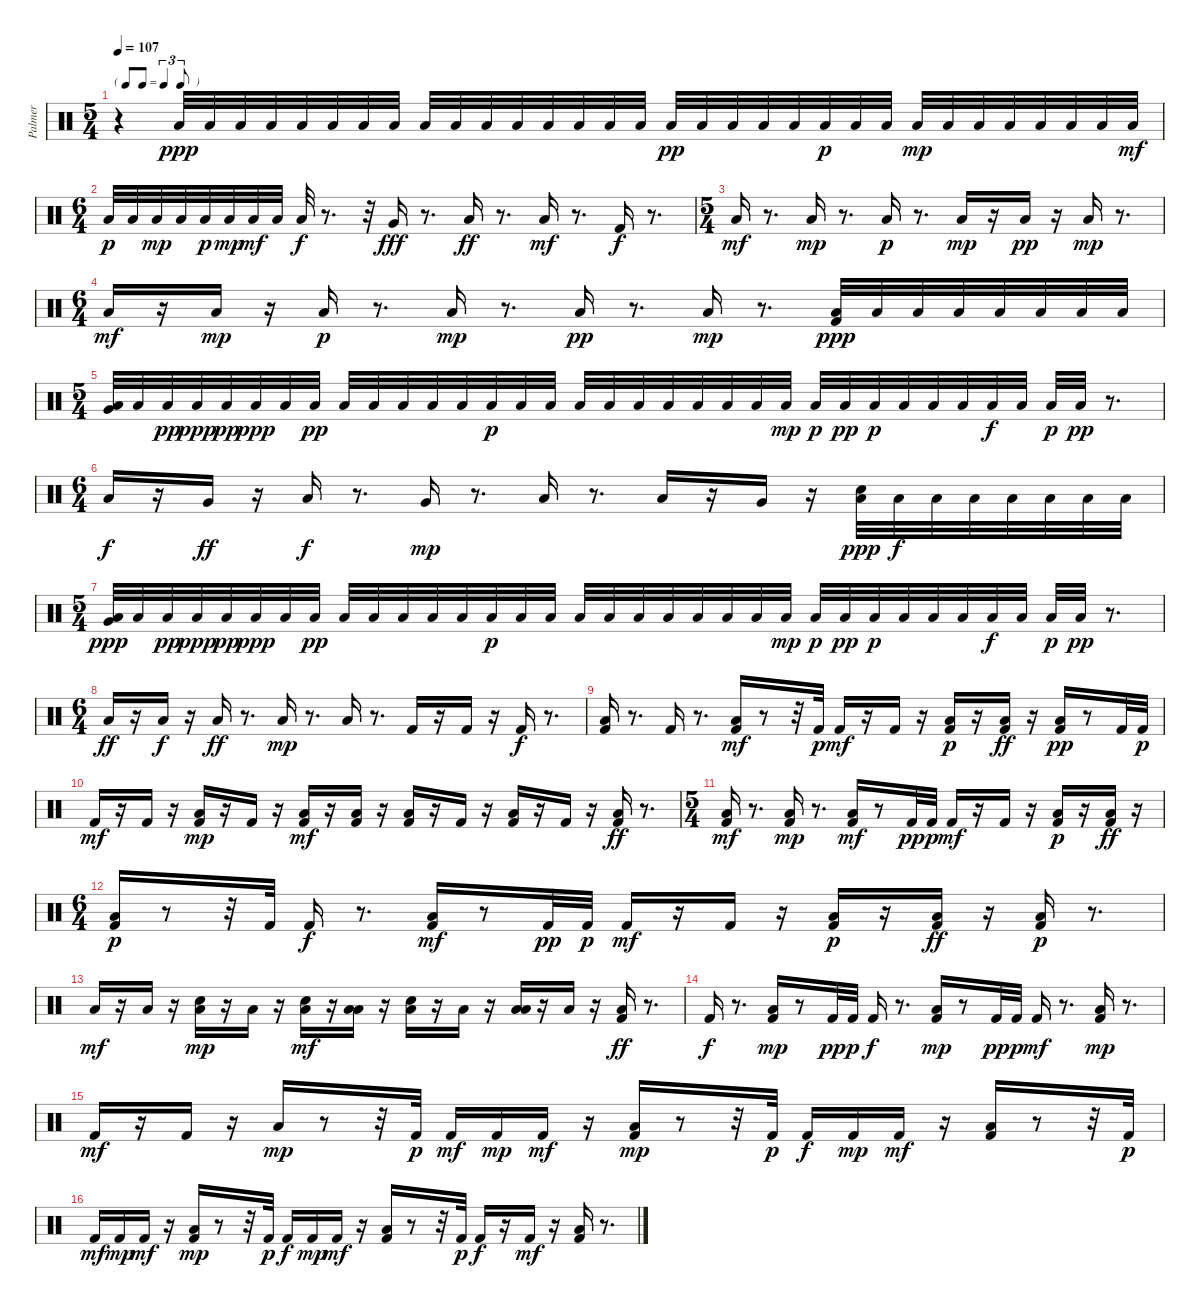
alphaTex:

\track ("Palmer" "Palmer") {instrument percussion}
\staff {score}
\articulation defaults
\ts (5 4)
\tf triplet8th
\tempo 107
\clef neutral
\ks c
r.4{dy ppp} "Low Floor Tom (hit)".32 "Low Floor Tom (hit)".32 "Low Floor Tom (hit)".32 "Low Floor Tom (hit)".32 "Low Floor Tom (hit)".32 "Low Floor Tom (hit)".32 "Low Floor Tom (hit)".32 "Low Floor Tom (hit)".32 "Low Floor Tom (hit)".32 "Low Floor Tom (hit)".32 "Low Floor Tom (hit)".32 "Low Floor Tom (hit)".32 "Low Floor Tom (hit)".32 "Low Floor Tom (hit)".32 "Low Floor Tom (hit)".32 "Low Floor Tom (hit)".32 "Low Floor Tom (hit)".32{dy pp} "Low Floor Tom (hit)".32 "Low Floor Tom (hit)".32 "Low Floor Tom (hit)".32 "Low Floor Tom (hit)".32 "Low Floor Tom (hit)".32{dy p} "Low Floor Tom (hit)".32 "Low Floor Tom (hit)".32 "Low Floor Tom (hit)".32{dy mp} "Low Floor Tom (hit)".32 "Low Floor Tom (hit)".32 "Low Floor Tom (hit)".32 "Low Floor Tom (hit)".32 "Low Floor Tom (hit)".32 "Low Floor Tom (hit)".32 "Low Floor Tom (hit)".32{dy mf} |
\ts (6 4)
"Low Floor Tom (hit)".32{dy p} "Low Floor Tom (hit)".32 "Low Floor Tom (hit)".32{dy mp} "Low Floor Tom (hit)".32 "Low Floor Tom (hit)".32{dy p} "Low Floor Tom (hit)".32{dy mp} "Low Floor Tom (hit)".32{dy mf} "Low Floor Tom (hit)".32 "Low Floor Tom (hit)".32{dy f} r.8{d} r.32 "Very Low Tom (hit)".16{dy fff} r.8{d} "Low Tom (hit)".16{dy ff} r.8{d} "Low Floor Tom (hit)".16{dy mf} r.8{d} "Kick (hit) 2".16{dy f} r.8{d} |
\ts (5 4)
"Low Tom (hit)".16{dy mf} r.8{d} "Low Tom (hit)".16{dy mp} r.8{d} "Low Tom (hit)".16{dy p} r.8{d} "Low Tom (hit)".16{dy mp} r.16 "Low Tom (hit)".16{dy pp} r.16 "Low Tom (hit)".16{dy mp} r.8{d} |
\ts (6 4)
"Low Tom (hit)".16{dy mf} r.16 "Low Tom (hit)".16{dy mp} r.16 "Low Tom (hit)".16{dy p} r.8{d} "Low Tom (hit)".16{dy mp} r.8{d} "Low Tom (hit)".16{dy pp} r.8{d} "Low Tom (hit)".16{dy mp} r.8{d} ("Low Tom (hit)" "Kick (hit) 2").32{dy ppp} "Low Floor Tom (hit)".32 "Low Floor Tom (hit)".32 "Low Floor Tom (hit)".32 "Low Floor Tom (hit)".32 "Low Floor Tom (hit)".32 "Low Floor Tom (hit)".32 "Low Floor Tom (hit)".32 |
\ts (5 4)
("Low Floor Tom (hit)" "Very Low Tom (hit)").32 "Low Floor Tom (hit)".32 "Low Floor Tom (hit)".32{dy pp} "Low Floor Tom (hit)".32{dy ppp} "Low Floor Tom (hit)".32{dy pp} "Low Floor Tom (hit)".32{dy ppp} "Low Floor Tom (hit)".32 "Low Floor Tom (hit)".32{dy pp} "Low Floor Tom (hit)".32 "Low Floor Tom (hit)".32 "Low Floor Tom (hit)".32 "Low Floor Tom (hit)".32 "Low Floor Tom (hit)".32 "Low Floor Tom (hit)".32{dy p} "Low Floor Tom (hit)".32 "Low Floor Tom (hit)".32 "Low Floor Tom (hit)".32 "Low Floor Tom (hit)".32 "Low Floor Tom (hit)".32 "Low Floor Tom (hit)".32 "Low Floor Tom (hit)".32 "Low Floor Tom (hit)".32 "Low Floor Tom (hit)".32 "Low Floor Tom (hit)".32{dy mp} "Low Floor Tom (hit)".32{dy p} "Low Floor Tom (hit)".32{dy pp} "Low Floor Tom (hit)".32{dy p} "Low Floor Tom (hit)".32 "Low Floor Tom (hit)".32 "Low Floor Tom (hit)".32 "Low Floor Tom (hit)".32{dy f} "Low Floor Tom (hit)".32 "Low Floor Tom (hit)".32{dy p} "Low Floor Tom (hit)".32{dy pp} r.8{d} |
\ts (6 4)
"Low Floor Tom (hit)".16{dy f} r.16 "Very Low Tom (hit)".16{dy ff} r.16 "Low Floor Tom (hit)".16{dy f} r.8{d} "Very Low Tom (hit)".16{dy mp} r.8{d} "Low Tom (hit)".16 r.8{d} "Low Tom (hit)".16 r.16 "Very Low Tom (hit)".16 r.16 ("Low Tom (hit)" "Electric Snare (hit)").32{dy ppp} "Low Floor Tom (hit)".32{dy f} "Low Floor Tom (hit)".32 "Low Floor Tom (hit)".32 "Low Floor Tom (hit)".32 "Low Floor Tom (hit)".32 "Low Floor Tom (hit)".32 "Low Floor Tom (hit)".32 |
\ts (5 4)
("Low Floor Tom (hit)" "Very Low Tom (hit)").32{dy ppp} "Low Floor Tom (hit)".32 "Low Floor Tom (hit)".32{dy pp} "Low Floor Tom (hit)".32{dy ppp} "Low Floor Tom (hit)".32{dy pp} "Low Floor Tom (hit)".32{dy ppp} "Low Floor Tom (hit)".32 "Low Floor Tom (hit)".32{dy pp} "Low Floor Tom (hit)".32 "Low Floor Tom (hit)".32 "Low Floor Tom (hit)".32 "Low Floor Tom (hit)".32 "Low Floor Tom (hit)".32 "Low Floor Tom (hit)".32{dy p} "Low Floor Tom (hit)".32 "Low Floor Tom (hit)".32 "Low Floor Tom (hit)".32 "Low Floor Tom (hit)".32 "Low Floor Tom (hit)".32 "Low Floor Tom (hit)".32 "Low Floor Tom (hit)".32 "Low Floor Tom (hit)".32 "Low Floor Tom (hit)".32 "Low Floor Tom (hit)".32{dy mp} "Low Floor Tom (hit)".32{dy p} "Low Floor Tom (hit)".32{dy pp} "Low Floor Tom (hit)".32{dy p} "Low Floor Tom (hit)".32 "Low Floor Tom (hit)".32 "Low Floor Tom (hit)".32 "Low Floor Tom (hit)".32{dy f} "Low Floor Tom (hit)".32 "Low Floor Tom (hit)".32{dy p} "Low Floor Tom (hit)".32{dy pp} r.8{d} |
\ts (6 4)
"Low Floor Tom (hit)".16{dy ff} r.16 "Low Floor Tom (hit)".16{dy f} r.16 "Low Floor Tom (hit)".16{dy ff} r.8{d} "Low Tom (hit)".16{dy mp} r.8{d} "Low Tom (hit)".16 r.8{d} "Kick (hit) 2".16 r.16 "Kick (hit) 2".16 r.16 "Kick (hit) 2".16{dy f} r.8{d} |
("Low Tom (hit)" "Kick (hit) 2").16 r.8{d} "Kick (hit) 2".16 r.8{d} ("Low Tom (hit)" "Kick (hit) 2").16{dy mf} r.8 r.32 "Kick (hit) 2".32{dy p} "Kick (hit) 2".16{dy mf} r.16 "Kick (hit) 2".16 r.16 ("Low Tom (hit)" "Kick (hit) 2").16{dy p} r.16 ("Low Floor Tom (hit)" "Kick (hit) 2").16{dy ff} r.16 ("Low Tom (hit)" "Kick (hit) 2").16{dy pp} r.8 "Kick (hit) 2".32 "Kick (hit) 2".32{dy p} |
"Kick (hit) 2".16{dy mf} r.16 "Kick (hit) 2".16 r.16 ("Low Tom (hit)" "Kick (hit) 2").16{dy mp} r.16 "Kick (hit) 2".16 r.16 ("Low Tom (hit)" "Kick (hit) 2").16{dy mf} r.16 ("Low Floor Tom (hit)" "Kick (hit) 2").16 r.16 ("Low Tom (hit)" "Kick (hit) 2").16 r.16 "Kick (hit) 2".16 r.16 ("Low Floor Tom (hit)" "Kick (hit) 2").16 r.16 "Kick (hit) 2".16 r.16 ("Low Tom (hit)" "Kick (hit) 2").16{dy ff} r.8{d} |
\ts (5 4)
("Low Tom (hit)" "Kick (hit) 2").16{dy mf} r.8{d} ("Low Floor Tom (hit)" "Kick (hit) 2").16{dy mp} r.8{d} ("Low Tom (hit)" "Kick (hit) 2").16{dy mf} r.8 "Kick (hit) 2".32{dy pp} "Kick (hit) 2".32{dy p} "Kick (hit) 2".16{dy mf} r.16 "Kick (hit) 2".16 r.16 ("Low Tom (hit)" "Kick (hit) 2").16{dy p} r.16 ("Low Floor Tom (hit)" "Kick (hit) 2").16{dy ff} r.16 |
\ts (6 4)
("Low Tom (hit)" "Kick (hit) 2").16{dy p} r.8 r.32 "Kick (hit) 2".32 "Kick (hit) 2".16{dy f} r.8{d} ("Low Tom (hit)" "Kick (hit) 2").16{dy mf} r.8 "Kick (hit) 2".32{dy pp} "Kick (hit) 2".32{dy p} "Kick (hit) 2".16{dy mf} r.16 "Kick (hit) 2".16 r.16 ("Low Tom (hit)" "Kick (hit) 2").16{dy p} r.16 ("Low Floor Tom (hit)" "Kick (hit) 2").16{dy ff} r.16 ("Low Tom (hit)" "Kick (hit) 2").16{dy p} r.8{d} |
"Low Floor Tom (hit)".16{dy mf} r.16 "Low Floor Tom (hit)".16 r.16 ("Low Tom (hit)" "Electric Snare (hit)").16{dy mp} r.16 "Low Floor Tom (hit)".16 r.16 ("Low Tom (hit)" "Electric Snare (hit)").16{dy mf} r.16 ("Low Floor Tom (hit)" "Low Tom (hit)").16 r.16 ("Low Tom (hit)" "Electric Snare (hit)").16 r.16 "Low Floor Tom (hit)".16 r.16 ("Low Floor Tom (hit)" "Low Tom (hit)").16 r.16 "Low Floor Tom (hit)".16 r.16 ("Low Floor Tom (hit)" "Kick (hit) 2").16{dy ff} r.8{d} |
"Kick (hit) 2".16{dy f} r.8{d} ("Low Floor Tom (hit)" "Kick (hit) 2").16{dy mp} r.8 "Kick (hit) 2".32{dy pp} "Kick (hit) 2".32{dy p} "Kick (hit) 2".16{dy f} r.8{d} ("Low Floor Tom (hit)" "Kick (hit) 2").16{dy mp} r.8 "Kick (hit) 2".32{dy pp} "Kick (hit) 2".32{dy p} "Kick (hit) 2".16{dy mf} r.8{d} ("Low Floor Tom (hit)" "Kick (hit) 2").16{dy mp} r.8{d} |
"Kick (hit) 2".16{dy mf} r.16 "Kick (hit) 2".16 r.16 "Low Floor Tom (hit)".16{dy mp} r.8 r.32 "Kick (hit) 2".32{dy p} "Kick (hit) 2".16{dy mf} "Kick (hit) 2".16{dy mp} "Kick (hit) 2".16{dy mf} r.16 ("Low Floor Tom (hit)" "Kick (hit) 2").16{dy mp} r.8 r.32 "Kick (hit) 2".32{dy p} "Kick (hit) 2".16{dy f} "Kick (hit) 2".16{dy mp} "Kick (hit) 2".16{dy mf} r.16 ("Low Floor Tom (hit)" "Kick (hit) 2").16 r.8 r.32 "Kick (hit) 2".32{dy p} |
"Kick (hit) 2".16{dy mf} "Kick (hit) 2".16{dy mp} "Kick (hit) 2".16{dy mf} r.16 ("Low Floor Tom (hit)" "Kick (hit) 2").16{dy mp} r.8 r.32 "Kick (hit) 2".32{dy p} "Kick (hit) 2".16{dy f} "Kick (hit) 2".16{dy mp} "Kick (hit) 2".16{dy mf} r.16 ("Low Floor Tom (hit)" "Kick (hit) 2").16 r.8 r.32 "Kick (hit) 2".32{dy p} "Kick (hit) 2".16{dy f} r.16 "Kick (hit) 2".16{dy mf} r.16 ("Low Floor Tom (hit)" "Kick (hit) 2").16 r.8{d}
